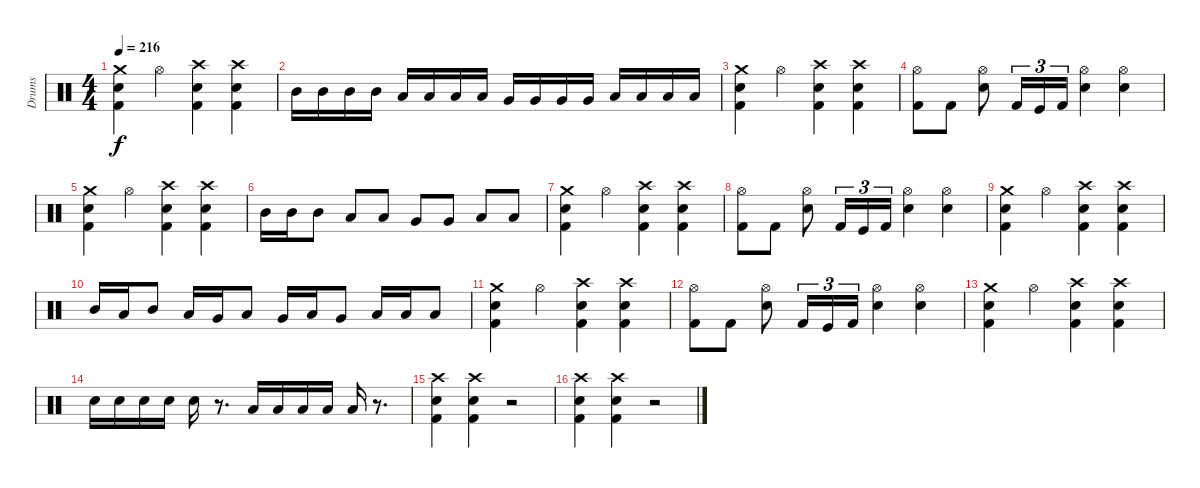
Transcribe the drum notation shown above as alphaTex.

\track ("Drums" "Drums") {instrument percussion}
\staff {score}
\articulation defaults
\ts (4 4)
\tempo 216
\clef neutral
\ks c
("Crash medium (hit)" "Snare (hit) 2" "Kick (hit) 2").4{dy f} "Hi-Hat (open)".4 ("Crash high (hit)" "Snare (hit) 2" "Kick (hit) 2").4 ("Crash high (hit)" "Snare (hit) 2" "Kick (hit) 2").4 |
"Mid Tom (hit)".16 "Mid Tom (hit)".16 "Mid Tom (hit)".16 "Mid Tom (hit)".16 "Low Tom (hit)".16 "Low Tom (hit)".16 "Low Tom (hit)".16 "Low Tom (hit)".16 "Very Low Tom (hit)".16 "Very Low Tom (hit)".16 "Very Low Tom (hit)".16 "Very Low Tom (hit)".16 "Low Floor Tom (hit)".16 "Low Floor Tom (hit)".16 "Low Floor Tom (hit)".16 "Low Floor Tom (hit)".16 |
("Crash medium (hit)" "Snare (hit) 2" "Kick (hit) 2").4 "Hi-Hat (open)".4 ("Crash high (hit)" "Snare (hit) 2" "Kick (hit) 2").4 ("Crash high (hit)" "Snare (hit) 2" "Kick (hit) 2").4 |
("Hi-Hat (open)" "Kick (hit) 2").8 "Kick (hit) 2".8 ("Hi-Hat (open)" "Snare (hit) 2").8 "Kick (hit) 2".16{tu (3 2)} "Kick (hit)".16{tu (3 2)} "Kick (hit) 2".16{tu (3 2)} ("Hi-Hat (open)" "Snare (hit) 2").4 ("Hi-Hat (open)" "Snare (hit) 2").4 |
("Crash medium (hit)" "Snare (hit) 2" "Kick (hit) 2").4 "Hi-Hat (open)".4 ("Crash high (hit)" "Snare (hit) 2" "Kick (hit) 2").4 ("Crash high (hit)" "Snare (hit) 2" "Kick (hit) 2").4 |
"Mid Tom (hit)".16 "Mid Tom (hit)".16 "Mid Tom (hit)".8 "Low Tom (hit)".8 "Low Tom (hit)".8 "Very Low Tom (hit)".8 "Very Low Tom (hit)".8 "Low Floor Tom (hit)".8 "Low Floor Tom (hit)".8 |
("Crash medium (hit)" "Snare (hit) 2" "Kick (hit) 2").4 "Hi-Hat (open)".4 ("Crash high (hit)" "Snare (hit) 2" "Kick (hit) 2").4 ("Crash high (hit)" "Snare (hit) 2" "Kick (hit) 2").4 |
("Hi-Hat (open)" "Kick (hit) 2").8 "Kick (hit) 2".8 ("Hi-Hat (open)" "Snare (hit) 2").8 "Kick (hit) 2".16{tu (3 2)} "Kick (hit)".16{tu (3 2)} "Kick (hit) 2".16{tu (3 2)} ("Hi-Hat (open)" "Snare (hit) 2").4 ("Hi-Hat (open)" "Snare (hit) 2").4 |
("Crash medium (hit)" "Snare (hit) 2" "Kick (hit) 2").4 "Hi-Hat (open)".4 ("Crash high (hit)" "Snare (hit) 2" "Kick (hit) 2").4 ("Crash high (hit)" "Snare (hit) 2" "Kick (hit) 2").4 |
"Mid Tom (hit)".16 "Low Tom (hit)".16 "Mid Tom (hit)".8 "Low Tom (hit)".16 "Very Low Tom (hit)".16 "Low Tom (hit)".8 "Very Low Tom (hit)".16 "Low Floor Tom (hit)".16 "Very Low Tom (hit)".8 "Low Floor Tom (hit)".16 "Low Floor Tom (hit)".16 "Low Floor Tom (hit)".8 |
("Crash medium (hit)" "Snare (hit) 2" "Kick (hit) 2").4 "Hi-Hat (open)".4 ("Crash high (hit)" "Snare (hit) 2" "Kick (hit) 2").4 ("Crash high (hit)" "Snare (hit) 2" "Kick (hit) 2").4 |
("Hi-Hat (open)" "Kick (hit) 2").8 "Kick (hit) 2".8 ("Hi-Hat (open)" "Snare (hit) 2").8 "Kick (hit) 2".16{tu (3 2)} "Kick (hit)".16{tu (3 2)} "Kick (hit) 2".16{tu (3 2)} ("Hi-Hat (open)" "Snare (hit) 2").4 ("Hi-Hat (open)" "Snare (hit) 2").4 |
("Crash medium (hit)" "Snare (hit) 2" "Kick (hit) 2").4 "Hi-Hat (open)".4 ("Crash high (hit)" "Snare (hit) 2" "Kick (hit) 2").4 ("Crash high (hit)" "Snare (hit) 2" "Kick (hit) 2").4 |
"Snare (hit) 2".16 "Snare (hit) 2".16 "Snare (hit) 2".16 "Snare (hit) 2".16 "Snare (hit) 2".16 r.8{d} "Low Tom (hit)".16 "Low Tom (hit)".16 "Low Tom (hit)".16 "Low Tom (hit)".16 "Low Tom (hit)".16 r.8{d} |
("Crash high (hit)" "Snare (hit) 2" "Kick (hit) 2").4 ("Crash high (hit)" "Snare (hit) 2" "Kick (hit) 2").4 r.2 |
("Crash high (hit)" "Snare (hit) 2" "Kick (hit) 2").4 ("Crash high (hit)" "Snare (hit) 2" "Kick (hit) 2").4 r.2
